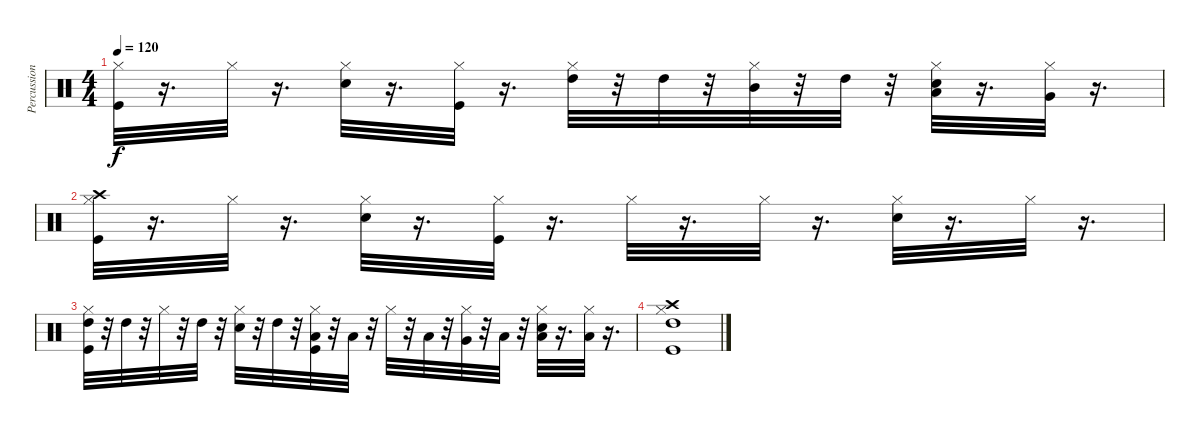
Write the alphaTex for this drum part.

\track ("Percussion" "Percussion") {instrument percussion}
\staff {score}
\articulation defaults
\ts (4 4)
\tempo 120
\clef neutral
\ks c
("Kick (hit)" "Hi-Hat (closed)").32{dy f} r.16{d} "Hi-Hat (closed)".32 r.16{d} ("Electric Snare (hit)" "Hi-Hat (closed)").32 r.16{d} ("Kick (hit)" "Hi-Hat (closed)").32 r.16{d} ("Hi-Hat (closed)" "High Tom (hit)").32 r.32 "High Tom (hit)".32 r.32 ("Hi-Hat (closed)" "Mid Tom (hit)").32 r.32 "High Tom (hit)".32 r.32 ("Electric Snare (hit)" "Hi-Hat (closed)" "Low Tom (hit)").32 r.16{d} ("Hi-Hat (closed)" "Very Low Tom (hit)").32 r.16{d} |
("Kick (hit)" "Hi-Hat (closed)" "Crash high (hit)").32 r.16{d} "Hi-Hat (closed)".32 r.16{d} ("Electric Snare (hit)" "Hi-Hat (closed)").32 r.16{d} ("Kick (hit)" "Hi-Hat (closed)").32 r.16{d} "Hi-Hat (closed)".32 r.16{d} "Hi-Hat (closed)".32 r.16{d} ("Electric Snare (hit)" "Hi-Hat (closed)").32 r.16{d} "Hi-Hat (closed)".32 r.16{d} |
("Kick (hit)" "Hi-Hat (closed)" "High Tom (hit)").32 r.32 "High Tom (hit)".32 r.32 "Hi-Hat (closed)".32 r.32 "High Tom (hit)".32 r.32 ("Electric Snare (hit)" "Hi-Hat (closed)").32 r.32 "High Tom (hit)".32 r.32 ("Kick (hit)" "Hi-Hat (closed)" "Low Tom (hit)").32 r.32 "Low Tom (hit)".32 r.32 "Hi-Hat (closed)".32 r.32 "Low Tom (hit)".32 r.32 ("Hi-Hat (closed)" "Very Low Tom (hit)").32 r.32 "Low Tom (hit)".32 r.32 ("Electric Snare (hit)" "Hi-Hat (closed)" "Low Floor Tom (hit)").32 r.16{d} ("Hi-Hat (closed)" "Low Floor Tom (hit)").32 r.16{d} |
("Kick (hit)" "Hi-Hat (closed)" "High Tom (hit)" "Crash high (hit)").1
